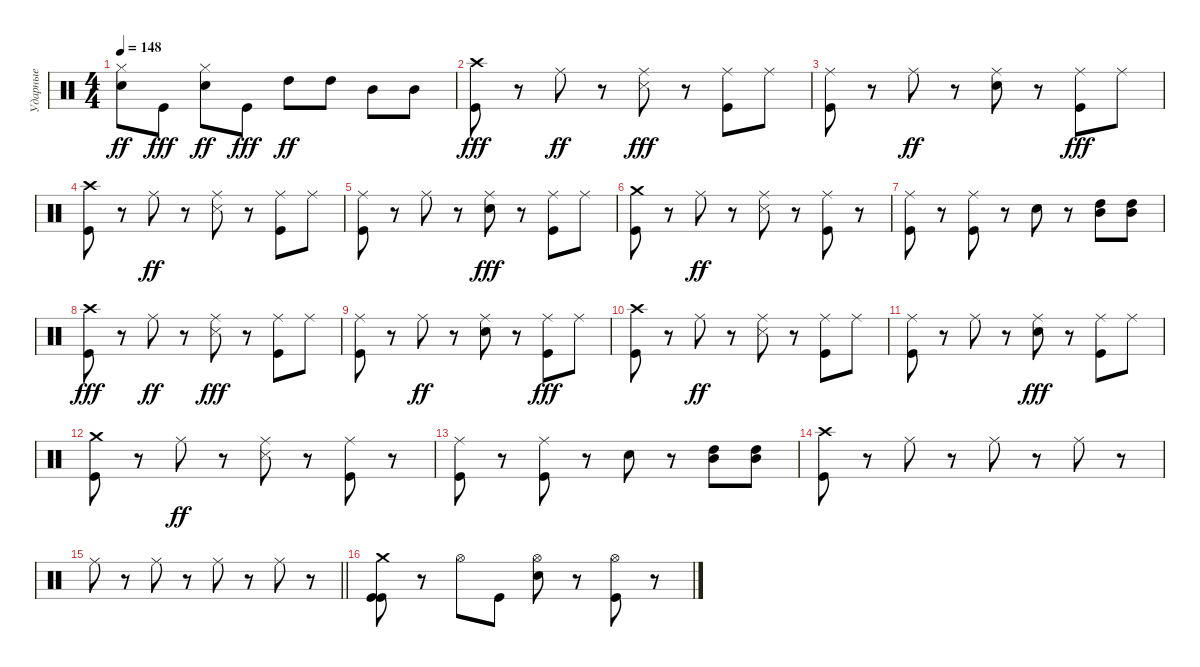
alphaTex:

\track ("Ударные" "Ударные") {instrument percussion}
\staff {score}
\articulation defaults
\ts (4 4)
\tempo 148
\clef neutral
\ks c
("Hi-Hat (closed)" "Snare (hit) 2").8{dy ff} "Kick (hit)".8{dy fff} ("Hi-Hat (closed)" "Snare (hit) 2").8{dy ff} "Kick (hit)".8{dy fff} "High Tom (hit)".8{dy ff} "High Tom (hit)".8 "Mid Tom (hit)".8 "Mid Tom (hit)".8 |
("Kick (hit)" "Crash high (hit)").8{dy fff} r.8 "Ride (middle)".8{dy ff} r.8 ("Snare (side stick) 3" "Ride (middle)").8{dy fff} r.8 ("Kick (hit)" "Ride (middle)").8 "Ride (middle)".8 |
("Kick (hit)" "Ride (middle)").8 r.8 "Ride (middle)".8{dy ff} r.8 ("Ride (middle)" "Snare (hit) 2").8 r.8 ("Kick (hit)" "Ride (middle)").8{dy fff} "Ride (middle)".8 |
("Kick (hit)" "Crash high (hit)").8 r.8 "Ride (middle)".8{dy ff} r.8 ("Ride (middle)" "Snare (side stick) 3").8 r.8 ("Kick (hit)" "Ride (middle)").8 "Ride (middle)".8 |
("Kick (hit)" "Ride (middle)").8 r.8 "Ride (middle)".8 r.8 ("Ride (middle)" "Snare (hit) 2").8{dy fff} r.8 ("Ride (middle)" "Kick (hit)").8 "Ride (middle)".8 |
("Crash medium (hit)" "Kick (hit)").8 r.8 "Ride (middle)".8{dy ff} r.8 ("Snare (side stick) 3" "Ride (middle)").8 r.8 ("Kick (hit)" "Ride (middle)").8 r.8 |
("Kick (hit)" "Ride (middle)").8 r.8 ("Kick (hit)" "Ride (middle)").8 r.8 "Snare (hit) 2".8 r.8 ("Mid Tom (hit)" "High Tom (hit)").8 ("Mid Tom (hit)" "High Tom (hit)").8 |
("Kick (hit)" "Crash high (hit)").8{dy fff} r.8 "Ride (middle)".8{dy ff} r.8 ("Snare (side stick) 3" "Ride (middle)").8{dy fff} r.8 ("Kick (hit)" "Ride (middle)").8 "Ride (middle)".8 |
("Kick (hit)" "Ride (middle)").8 r.8 "Ride (middle)".8{dy ff} r.8 ("Ride (middle)" "Snare (hit) 2").8 r.8 ("Kick (hit)" "Ride (middle)").8{dy fff} "Ride (middle)".8 |
("Kick (hit)" "Crash high (hit)").8 r.8 "Ride (middle)".8{dy ff} r.8 ("Ride (middle)" "Snare (side stick) 3").8 r.8 ("Kick (hit)" "Ride (middle)").8 "Ride (middle)".8 |
("Kick (hit)" "Ride (middle)").8 r.8 "Ride (middle)".8 r.8 ("Ride (middle)" "Snare (hit) 2").8{dy fff} r.8 ("Ride (middle)" "Kick (hit)").8 "Ride (middle)".8 |
("Crash medium (hit)" "Kick (hit)").8 r.8 "Ride (middle)".8{dy ff} r.8 ("Snare (side stick) 3" "Ride (middle)").8 r.8 ("Kick (hit)" "Ride (middle)").8 r.8 |
("Kick (hit)" "Ride (middle)").8 r.8 ("Kick (hit)" "Ride (middle)").8 r.8 "Snare (hit) 2".8 r.8 ("Mid Tom (hit)" "High Tom (hit)").8 ("Mid Tom (hit)" "High Tom (hit)").8 |
("Crash high (hit)" "Kick (hit)").8 r.8 "Ride (middle)".8{volume 10} r.8 "Ride (middle)".8 r.8 "Ride (middle)".8 r.8 |
\barLineRight lightlight "Ride (middle)".8
r.8 "Ride (middle)".8 r.8 "Ride (middle)".8 r.8 "Ride (middle)".8 r.8 |
("Crash medium (hit)" "Kick (hit)" "Kick (hit)").8{volume 14} r.8 "Hi-Hat (open)".8 "Kick (hit)".8 ("Snare (hit) 2" "Hi-Hat (open)").8 r.8 ("Kick (hit)" "Hi-Hat (open)").8 r.8
